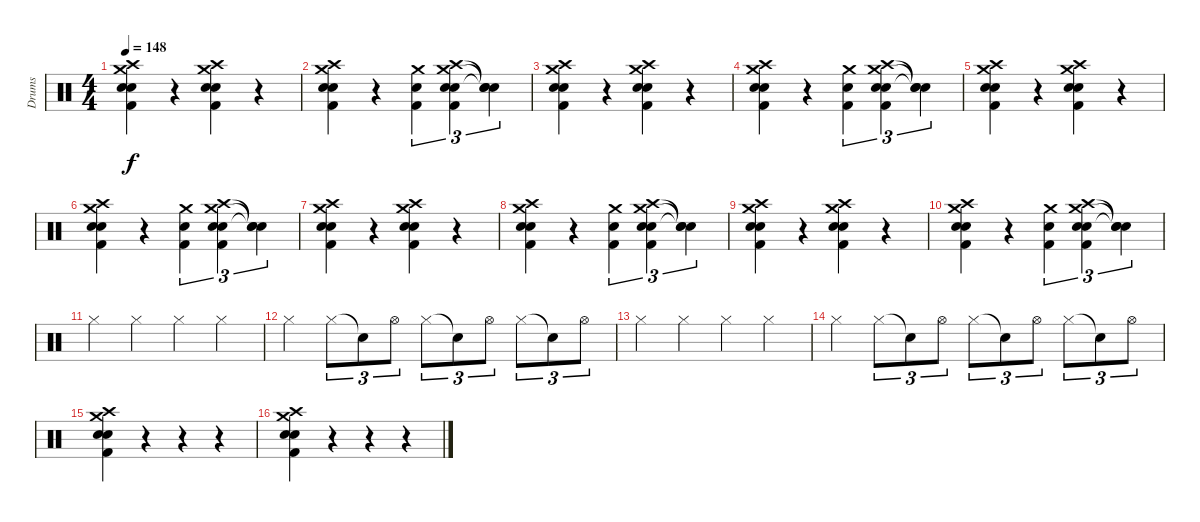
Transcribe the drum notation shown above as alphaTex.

\track ("Drums" "Drums") {instrument percussion}
\staff {score}
\articulation defaults
\ts (4 4)
\tempo 148
\clef neutral
\ks c
("Crash high (hit)" "Crash medium (hit)" "Snare (hit) 2" "Kick (hit) 2" "Snare (hit) 2").4{dy f} r.4 ("Crash high (hit)" "Crash medium (hit)" "Snare (hit) 2" "Kick (hit) 2" "Snare (hit) 2").4 r.4 |
("Crash high (hit)" "Crash medium (hit)" "Snare (hit) 2" "Kick (hit) 2" "Snare (hit) 2").4 r.4 ("Crash medium (hit)" "Kick (hit) 2" "Snare (hit) 2").4{tu (3 2)} ("Crash high (hit)" "Crash medium (hit)" "Snare (hit) 2" "Kick (hit) 2" "Snare (hit) 2").4{tu (3 2)} ("Snare (hit)"{t} "Snare (hit)"{t} "Snare (hit)"{t}).4{tu (3 2)} |
("Crash high (hit)" "Crash medium (hit)" "Snare (hit) 2" "Kick (hit) 2" "Snare (hit) 2").4 r.4 ("Crash high (hit)" "Crash medium (hit)" "Snare (hit) 2" "Kick (hit) 2" "Snare (hit) 2").4 r.4 |
("Crash high (hit)" "Crash medium (hit)" "Snare (hit) 2" "Kick (hit) 2" "Snare (hit) 2").4 r.4 ("Crash medium (hit)" "Kick (hit) 2" "Snare (hit) 2").4{tu (3 2)} ("Crash high (hit)" "Crash medium (hit)" "Snare (hit) 2" "Kick (hit) 2" "Snare (hit) 2").4{tu (3 2)} ("Snare (hit)"{t} "Snare (hit)"{t} "Snare (hit)"{t}).4{tu (3 2)} |
("Crash high (hit)" "Crash medium (hit)" "Snare (hit) 2" "Kick (hit) 2" "Snare (hit) 2").4 r.4 ("Crash high (hit)" "Crash medium (hit)" "Snare (hit) 2" "Kick (hit) 2" "Snare (hit) 2").4 r.4 |
("Crash high (hit)" "Crash medium (hit)" "Snare (hit) 2" "Kick (hit) 2" "Snare (hit) 2").4 r.4 ("Crash medium (hit)" "Kick (hit) 2" "Snare (hit) 2").4{tu (3 2)} ("Crash high (hit)" "Crash medium (hit)" "Snare (hit) 2" "Kick (hit) 2" "Snare (hit) 2").4{tu (3 2)} ("Snare (hit)"{t} "Snare (hit)"{t} "Snare (hit)"{t}).4{tu (3 2)} |
("Crash high (hit)" "Crash medium (hit)" "Snare (hit) 2" "Kick (hit) 2" "Snare (hit) 2").4 r.4 ("Crash high (hit)" "Crash medium (hit)" "Snare (hit) 2" "Kick (hit) 2" "Snare (hit) 2").4 r.4 |
("Crash high (hit)" "Crash medium (hit)" "Snare (hit) 2" "Kick (hit) 2" "Snare (hit) 2").4 r.4 ("Crash medium (hit)" "Kick (hit) 2" "Snare (hit) 2").4{tu (3 2)} ("Crash high (hit)" "Crash medium (hit)" "Snare (hit) 2" "Kick (hit) 2" "Snare (hit) 2").4{tu (3 2)} ("Snare (hit)"{t} "Snare (hit)"{t} "Snare (hit)"{t}).4{tu (3 2)} |
("Crash high (hit)" "Crash medium (hit)" "Snare (hit) 2" "Kick (hit) 2" "Snare (hit) 2").4 r.4 ("Crash high (hit)" "Crash medium (hit)" "Snare (hit) 2" "Kick (hit) 2" "Snare (hit) 2").4 r.4 |
("Crash high (hit)" "Crash medium (hit)" "Snare (hit) 2" "Kick (hit) 2" "Snare (hit) 2").4 r.4 ("Crash medium (hit)" "Kick (hit) 2" "Snare (hit) 2").4{tu (3 2)} ("Crash high (hit)" "Crash medium (hit)" "Snare (hit) 2" "Kick (hit) 2" "Snare (hit) 2").4{tu (3 2)} ("Snare (hit)"{t} "Snare (hit)"{t} "Snare (hit)"{t}).4{tu (3 2)} |
"Hi-Hat (closed)".4 "Hi-Hat (closed)".4 "Hi-Hat (closed)".4 "Hi-Hat (closed)".4 |
"Hi-Hat (closed)".4 "Hi-Hat (closed)".8{tu (3 2)} "Snare (hit)"{t}.8{tu (3 2)} "Hi-Hat (open)".8{tu (3 2)} "Hi-Hat (closed)".8{tu (3 2)} "Snare (hit)"{t}.8{tu (3 2)} "Hi-Hat (open)".8{tu (3 2)} "Hi-Hat (closed)".8{tu (3 2)} "Snare (hit)"{t}.8{tu (3 2)} "Hi-Hat (open)".8{tu (3 2)} |
"Hi-Hat (closed)".4 "Hi-Hat (closed)".4 "Hi-Hat (closed)".4 "Hi-Hat (closed)".4 |
"Hi-Hat (closed)".4 "Hi-Hat (closed)".8{tu (3 2)} "Snare (hit)"{t}.8{tu (3 2)} "Hi-Hat (open)".8{tu (3 2)} "Hi-Hat (closed)".8{tu (3 2)} "Snare (hit)"{t}.8{tu (3 2)} "Hi-Hat (open)".8{tu (3 2)} "Hi-Hat (closed)".8{tu (3 2)} "Snare (hit)"{t}.8{tu (3 2)} "Hi-Hat (open)".8{tu (3 2)} |
("Crash medium (hit)" "Snare (hit) 2" "Snare (hit) 2" "Kick (hit) 2" "Crash high (hit)").4 r.4 r.4 r.4 |
("Crash medium (hit)" "Snare (hit) 2" "Snare (hit) 2" "Kick (hit) 2" "Crash high (hit)").4 r.4 r.4 r.4
